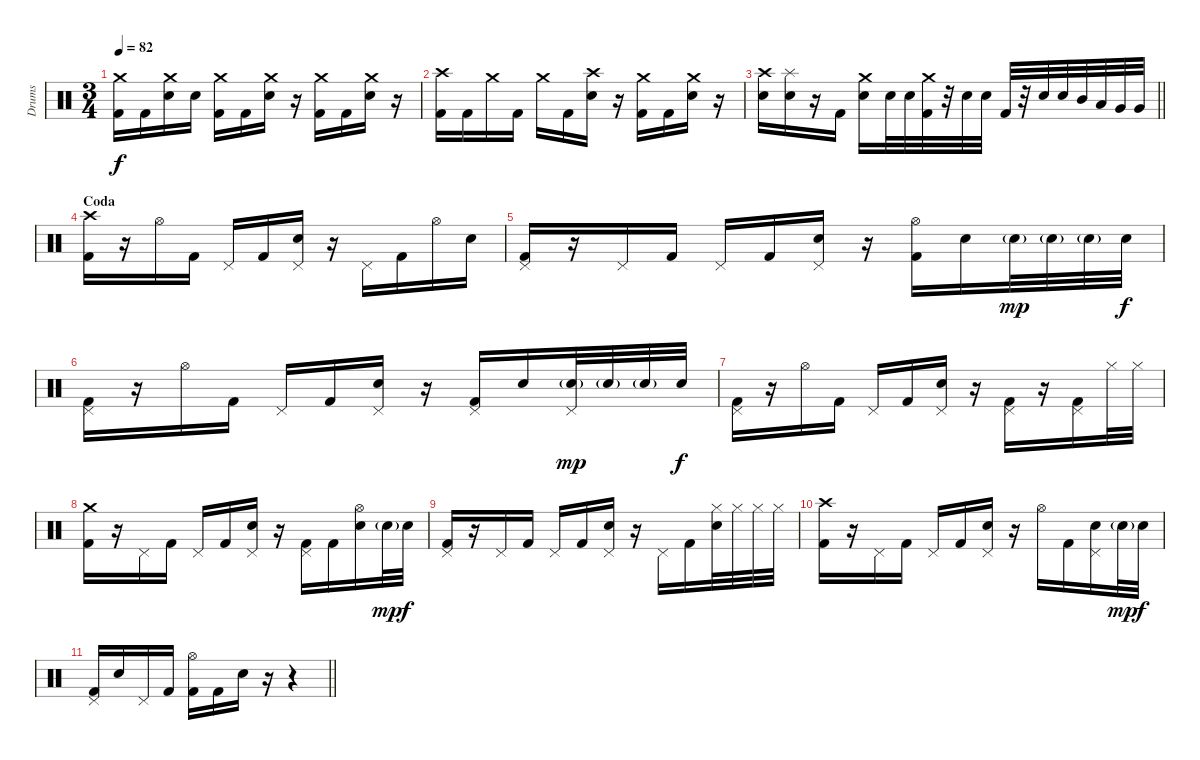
\track ("Drums" "Drums") {instrument percussion}
\staff {score}
\articulation defaults
\ts (3 4)
\tempo 82
\clef neutral
\ks c
("Crash medium (hit)" "Kick (hit) 2").16{dy f} "Kick (hit) 2".16 ("Crash medium (hit)" "Electric Snare (hit)").16 "Electric Snare (hit)".16 ("Crash medium (hit)" "Kick (hit) 2").16 "Kick (hit) 2".16 ("Crash medium (hit)" "Electric Snare (hit)").16 r.16 ("Crash medium (hit)" "Kick (hit) 2").16 "Kick (hit) 2".16 ("Crash medium (hit)" "Electric Snare (hit)").16 r.16 |
("Crash high (hit)" "Kick (hit) 2").16 "Kick (hit) 2".16 "Crash medium (hit)".16 "Kick (hit) 2".16 "Crash medium (hit)".16 "Kick (hit) 2".16 ("Crash high (hit)" "Electric Snare (hit)").16 r.16 ("Crash medium (hit)" "Kick (hit) 2").16 "Kick (hit) 2".16 ("Crash medium (hit)" "Electric Snare (hit)").16 r.16 |
\barLineRight lightlight
("Crash high (hit)" "Electric Snare (hit)").16 ("Splash (hit)" "Electric Snare (hit)").16 r.16 "Kick (hit) 2".16 ("Crash medium (hit)" "Electric Snare (hit)").16 "Electric Snare (hit)".32 "Electric Snare (hit)".32 ("Crash medium (hit)" "Kick (hit) 2").32 r.32 "Electric Snare (hit)".32 "Electric Snare (hit)".32 "Kick (hit) 2".32 r.32 "Electric Snare (hit)".32 "Electric Snare (hit)".32 "Mid Tom (hit)".32 "Low Tom (hit)".32 "Very Low Tom (hit)".32 "Very Low Tom (hit)".32 |
\section ("" "Coda")
("Crash high (hit)" "Kick (hit) 2").16 r.16 "Hi-Hat (open)".16 "Kick (hit) 2".16 "Pedal Hi-Hat (hit)".16 "Kick (hit) 2".16 ("Pedal Hi-Hat (hit)" "Electric Snare (hit)").16 r.16 "Pedal Hi-Hat (hit)".16 "Kick (hit) 2".16 "Hi-Hat (open)".16 "Electric Snare (hit)".16 |
("Pedal Hi-Hat (hit)" "Kick (hit) 2").16 r.16 "Pedal Hi-Hat (hit)".16 "Kick (hit) 2".16 "Pedal Hi-Hat (hit)".16 "Kick (hit) 2".16 ("Pedal Hi-Hat (hit)" "Electric Snare (hit)").16 r.16 ("Hi-Hat (open)" "Kick (hit) 2").16 "Electric Snare (hit)".16 "Electric Snare (hit)"{g}.32{dy mp} "Electric Snare (hit)"{g}.32 "Electric Snare (hit)"{g}.32 "Electric Snare (hit)".32{dy f} |
("Pedal Hi-Hat (hit)" "Kick (hit) 2").16 r.16 "Hi-Hat (open)".16 "Kick (hit) 2".16 "Pedal Hi-Hat (hit)".16 "Kick (hit) 2".16 ("Pedal Hi-Hat (hit)" "Electric Snare (hit)").16 r.16 ("Pedal Hi-Hat (hit)" "Kick (hit) 2").16 "Electric Snare (hit)".16 ("Pedal Hi-Hat (hit)" "Electric Snare (hit)"{g}).32{dy mp} "Electric Snare (hit)"{g}.32 "Electric Snare (hit)"{g}.32 "Electric Snare (hit)".32{dy f} |
("Pedal Hi-Hat (hit)" "Kick (hit) 2").16 r.16 "Hi-Hat (open)".16 "Kick (hit) 2".16 "Pedal Hi-Hat (hit)".16 "Kick (hit) 2".16 ("Pedal Hi-Hat (hit)" "Electric Snare (hit)").16 r.16 ("Pedal Hi-Hat (hit)" "Kick (hit) 2").16 r.16 ("Pedal Hi-Hat (hit)" "Kick (hit) 2").16 "Hi-Hat (closed)".32 "Hi-Hat (closed)".32 |
("Crash medium (hit)" "Kick (hit) 2").16 r.16 "Pedal Hi-Hat (hit)".16 "Kick (hit) 2".16 "Pedal Hi-Hat (hit)".16 "Kick (hit) 2".16 ("Pedal Hi-Hat (hit)" "Electric Snare (hit)").16 r.16 ("Pedal Hi-Hat (hit)" "Kick (hit) 2").16 "Kick (hit) 2".16 ("Hi-Hat (open)" "Electric Snare (hit)").16 "Electric Snare (hit)"{g}.32{dy mp} "Electric Snare (hit)".32{dy f} |
("Pedal Hi-Hat (hit)" "Kick (hit) 2").16 r.16 "Pedal Hi-Hat (hit)".16 "Kick (hit) 2".16 "Pedal Hi-Hat (hit)".16 "Kick (hit) 2".16 ("Pedal Hi-Hat (hit)" "Electric Snare (hit)").16 r.16 "Pedal Hi-Hat (hit)".16 "Kick (hit) 2".16 ("Hi-Hat (closed)" "Electric Snare (hit)").32 "Hi-Hat (closed)".32 "Hi-Hat (closed)".32 "Hi-Hat (closed)".32 |
("Crash high (hit)" "Kick (hit) 2").16 r.16 "Pedal Hi-Hat (hit)".16 "Kick (hit) 2".16 "Pedal Hi-Hat (hit)".16 "Kick (hit) 2".16 ("Pedal Hi-Hat (hit)" "Electric Snare (hit)").16 r.16 "Hi-Hat (open)".16 "Kick (hit) 2".16 ("Pedal Hi-Hat (hit)" "Electric Snare (hit)").16 "Electric Snare (hit)"{g}.32{dy mp} "Electric Snare (hit)".32{dy f} |
\barLineRight lightlight
("Pedal Hi-Hat (hit)" "Kick (hit) 2").16 "Electric Snare (hit)".16 "Pedal Hi-Hat (hit)".16 "Kick (hit) 2".16 ("Hi-Hat (open)" "Kick (hit) 2").16 "Kick (hit) 2".16 "Electric Snare (hit)".16 r.16 r.4
